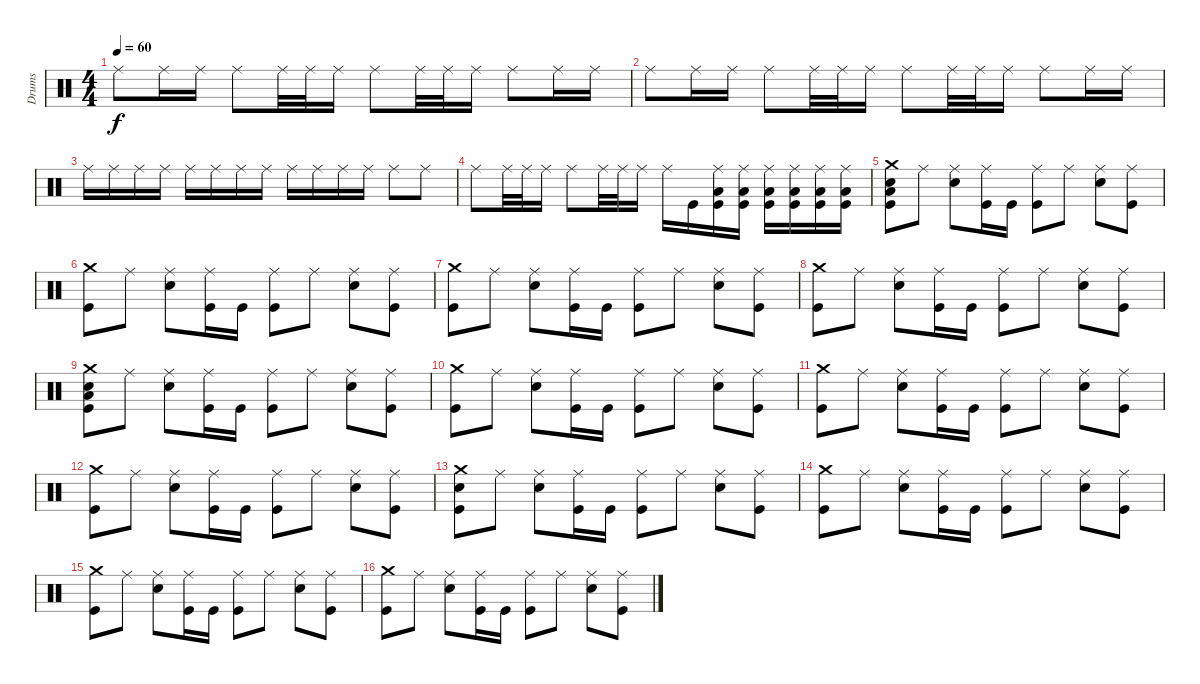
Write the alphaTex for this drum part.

\track ("Drums" "Drums") {instrument percussion}
\staff {score}
\articulation defaults
\ts (4 4)
\tempo 60
\clef neutral
\ks c "Ride (middle)".8{dy f} "Ride (middle)".16 "Ride (middle)".16 "Ride (middle)".8 "Ride (middle)".32 "Ride (middle)".32 "Ride (middle)".16 "Ride (middle)".8 "Ride (middle)".32 "Ride (middle)".32 "Ride (middle)".16 "Ride (middle)".8 "Ride (middle)".16 "Ride (middle)".16
|
"Ride (middle)".8 "Ride (middle)".16 "Ride (middle)".16 "Ride (middle)".8 "Ride (middle)".32 "Ride (middle)".32 "Ride (middle)".16 "Ride (middle)".8 "Ride (middle)".32 "Ride (middle)".32 "Ride (middle)".16 "Ride (middle)".8 "Ride (middle)".16 "Ride (middle)".16 |
"Ride (middle)".16 "Ride (middle)".16 "Ride (middle)".16 "Ride (middle)".16 "Ride (middle)".16 "Ride (middle)".16 "Ride (middle)".16 "Ride (middle)".16 "Ride (middle)".16 "Ride (middle)".16 "Ride (middle)".16 "Ride (middle)".16 "Ride (middle)".8 "Ride (middle)".8 |
"Ride (middle)".8 "Ride (middle)".32 "Ride (middle)".32 "Ride (middle)".16 "Ride (middle)".8 "Ride (middle)".32 "Ride (middle)".32 "Ride (middle)".16 "Ride (middle)".16 "Kick (hit)".16 ("Ride (middle)" "Low Tom (hit)" "Kick (hit)").16 ("Ride (middle)" "Low Tom (hit)" "Kick (hit)").16 ("Ride (middle)" "Low Tom (hit)" "Kick (hit)").16 ("Ride (middle)" "Low Tom (hit)" "Kick (hit)").16 ("Ride (middle)" "Low Tom (hit)" "Kick (hit)").16 ("Ride (middle)" "Low Tom (hit)" "Kick (hit)").16 |
("Crash medium (hit)" "Low Tom (hit)" "Snare (hit) 2" "Kick (hit)").8 "Ride (middle)".8 ("Ride (middle)" "Snare (hit) 2").8 ("Ride (middle)" "Kick (hit)").16 "Kick (hit)".16 ("Ride (middle)" "Kick (hit)").8 "Ride (middle)".8 ("Ride (middle)" "Snare (hit) 2").8 ("Ride (middle)" "Kick (hit)").8 |
("Crash medium (hit)" "Kick (hit)").8 "Ride (middle)".8 ("Ride (middle)" "Snare (hit) 2").8 ("Ride (middle)" "Kick (hit)").16 "Kick (hit)".16 ("Ride (middle)" "Kick (hit)").8 "Ride (middle)".8 ("Ride (middle)" "Snare (hit) 2").8 ("Ride (middle)" "Kick (hit)").8 |
("Crash medium (hit)" "Kick (hit)").8 "Ride (middle)".8 ("Ride (middle)" "Snare (hit) 2").8 ("Ride (middle)" "Kick (hit)").16 "Kick (hit)".16 ("Ride (middle)" "Kick (hit)").8 "Ride (middle)".8 ("Ride (middle)" "Snare (hit) 2").8 ("Ride (middle)" "Kick (hit)").8 |
("Crash medium (hit)" "Kick (hit)").8 "Ride (middle)".8 ("Ride (middle)" "Snare (hit) 2").8 ("Ride (middle)" "Kick (hit)").16 "Kick (hit)".16 ("Ride (middle)" "Kick (hit)").8 "Ride (middle)".8 ("Ride (middle)" "Snare (hit) 2").8 ("Ride (middle)" "Kick (hit)").8 |
("Crash medium (hit)" "Low Tom (hit)" "Snare (hit) 2" "Kick (hit)").8 "Ride (middle)".8 ("Ride (middle)" "Snare (hit) 2").8 ("Ride (middle)" "Kick (hit)").16 "Kick (hit)".16 ("Ride (middle)" "Kick (hit)").8 "Ride (middle)".8 ("Ride (middle)" "Snare (hit) 2").8 ("Ride (middle)" "Kick (hit)").8 |
("Crash medium (hit)" "Kick (hit)").8 "Ride (middle)".8 ("Ride (middle)" "Snare (hit) 2").8 ("Ride (middle)" "Kick (hit)").16 "Kick (hit)".16 ("Ride (middle)" "Kick (hit)").8 "Ride (middle)".8 ("Ride (middle)" "Snare (hit) 2").8 ("Ride (middle)" "Kick (hit)").8 |
("Crash medium (hit)" "Kick (hit)").8 "Ride (middle)".8 ("Ride (middle)" "Snare (hit) 2").8 ("Ride (middle)" "Kick (hit)").16 "Kick (hit)".16 ("Ride (middle)" "Kick (hit)").8 "Ride (middle)".8 ("Ride (middle)" "Snare (hit) 2").8 ("Ride (middle)" "Kick (hit)").8 |
("Crash medium (hit)" "Kick (hit)").8 "Ride (middle)".8 ("Ride (middle)" "Snare (hit) 2").8 ("Ride (middle)" "Kick (hit)").16 "Kick (hit)".16 ("Ride (middle)" "Kick (hit)").8 "Ride (middle)".8 ("Ride (middle)" "Snare (hit) 2").8 ("Ride (middle)" "Kick (hit)").8 |
("Crash medium (hit)" "Snare (hit) 2" "Kick (hit)").8 "Ride (middle)".8 ("Ride (middle)" "Snare (hit) 2").8 ("Ride (middle)" "Kick (hit)").16 "Kick (hit)".16 ("Ride (middle)" "Kick (hit)").8 "Ride (middle)".8 ("Ride (middle)" "Snare (hit) 2").8 ("Ride (middle)" "Kick (hit)").8 |
("Crash medium (hit)" "Kick (hit)").8 "Ride (middle)".8 ("Ride (middle)" "Snare (hit) 2").8 ("Ride (middle)" "Kick (hit)").16 "Kick (hit)".16 ("Ride (middle)" "Kick (hit)").8 "Ride (middle)".8 ("Ride (middle)" "Snare (hit) 2").8 ("Ride (middle)" "Kick (hit)").8 |
("Crash medium (hit)" "Kick (hit)").8 "Ride (middle)".8 ("Ride (middle)" "Snare (hit) 2").8 ("Ride (middle)" "Kick (hit)").16 "Kick (hit)".16 ("Ride (middle)" "Kick (hit)").8 "Ride (middle)".8 ("Ride (middle)" "Snare (hit) 2").8 ("Ride (middle)" "Kick (hit)").8 |
("Crash medium (hit)" "Kick (hit)").8 "Ride (middle)".8 ("Ride (middle)" "Snare (hit) 2").8 ("Ride (middle)" "Kick (hit)").16 "Kick (hit)".16 ("Ride (middle)" "Kick (hit)").8 "Ride (middle)".8 ("Ride (middle)" "Snare (hit) 2").8 ("Ride (middle)" "Kick (hit)").8
